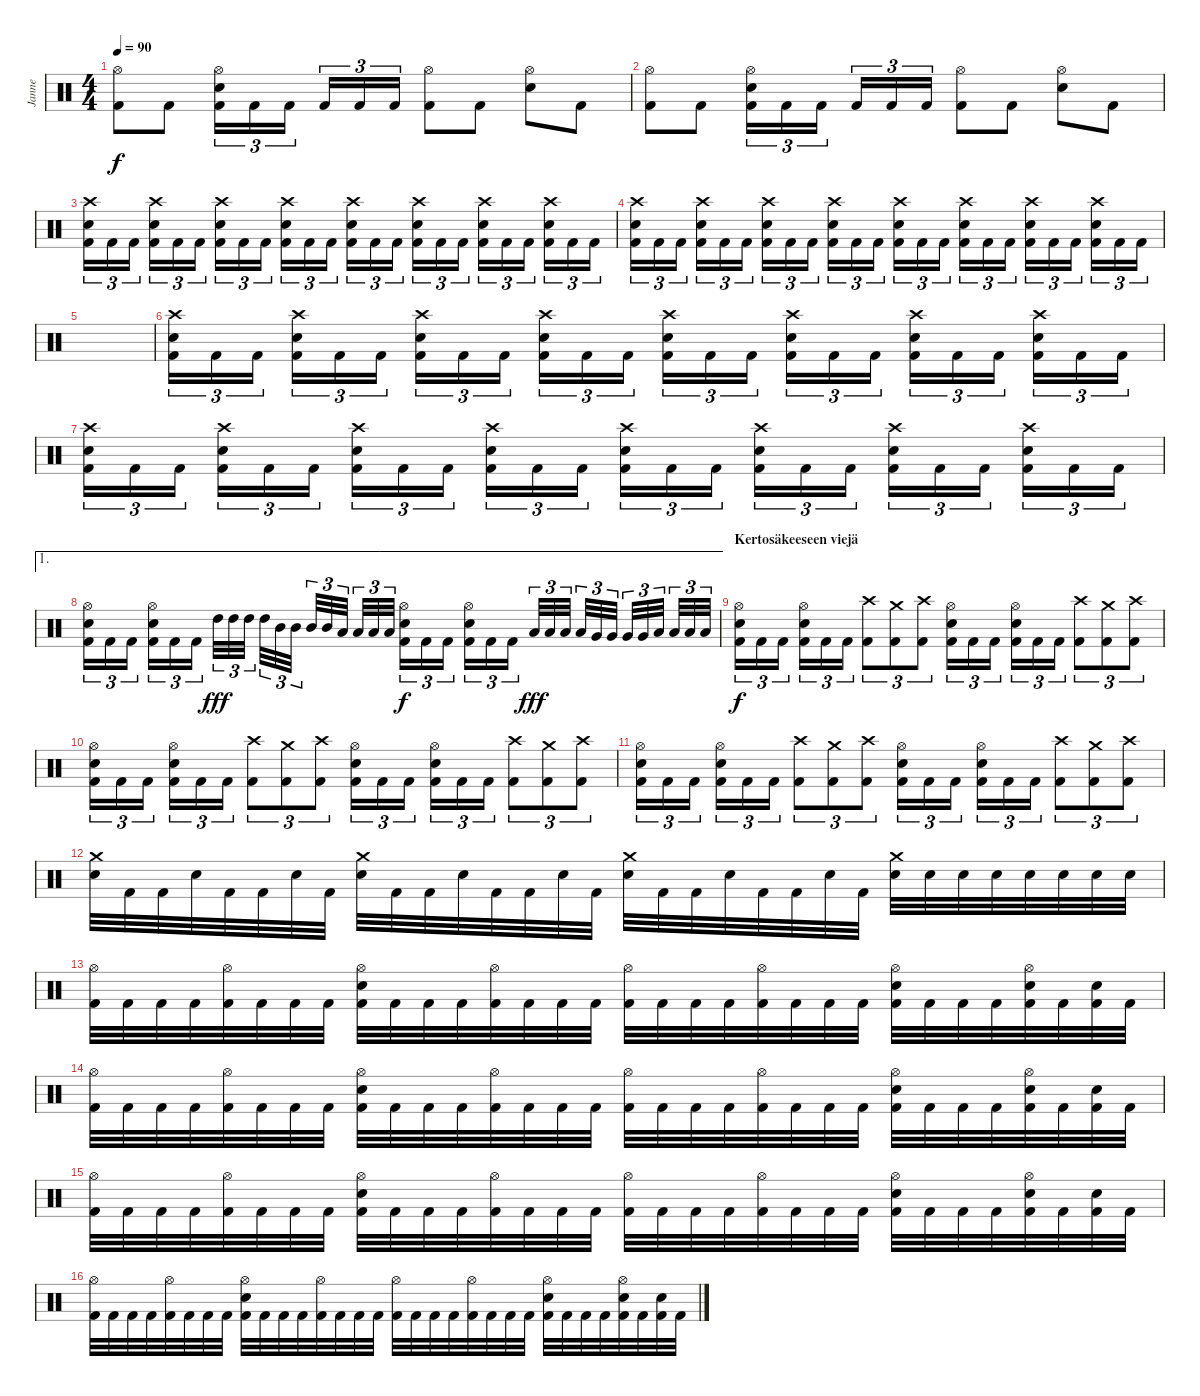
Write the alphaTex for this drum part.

\track ("Janne" "Janne") {instrument percussion}
\staff {score}
\articulation defaults
\ts (4 4)
\tempo 90
\clef neutral
\ks c
("Hi-Hat (open)" "Kick (hit) 2").8{dy f} "Kick (hit) 2".8 ("Hi-Hat (open)" "Electric Snare (hit)" "Kick (hit) 2").16{tu (3 2)} "Kick (hit) 2".16{tu (3 2)} "Kick (hit) 2".16{tu (3 2)} "Kick (hit) 2".16{tu (3 2)} "Kick (hit) 2".16{tu (3 2)} "Kick (hit) 2".16{tu (3 2)} ("Hi-Hat (open)" "Kick (hit) 2").8 "Kick (hit) 2".8 ("Hi-Hat (open)" "Electric Snare (hit)").8 "Kick (hit) 2".8 |
("Hi-Hat (open)" "Kick (hit) 2").8 "Kick (hit) 2".8 ("Hi-Hat (open)" "Electric Snare (hit)" "Kick (hit) 2").16{tu (3 2)} "Kick (hit) 2".16{tu (3 2)} "Kick (hit) 2".16{tu (3 2)} "Kick (hit) 2".16{tu (3 2)} "Kick (hit) 2".16{tu (3 2)} "Kick (hit) 2".16{tu (3 2)} ("Hi-Hat (open)" "Kick (hit) 2").8 "Kick (hit) 2".8 ("Hi-Hat (open)" "Electric Snare (hit)").8 "Kick (hit) 2".8 |
("Crash high (hit)" "Electric Snare (hit)" "Kick (hit) 2").16{tu (3 2)} "Kick (hit) 2".16{tu (3 2)} "Kick (hit) 2".16{tu (3 2)} ("Crash high (hit)" "Electric Snare (hit)" "Kick (hit) 2").16{tu (3 2)} "Kick (hit) 2".16{tu (3 2)} "Kick (hit) 2".16{tu (3 2)} ("Crash high (hit)" "Electric Snare (hit)" "Kick (hit) 2").16{tu (3 2)} "Kick (hit) 2".16{tu (3 2)} "Kick (hit) 2".16{tu (3 2)} ("Crash high (hit)" "Electric Snare (hit)" "Kick (hit) 2").16{tu (3 2)} "Kick (hit) 2".16{tu (3 2)} "Kick (hit) 2".16{tu (3 2)} ("Crash high (hit)" "Electric Snare (hit)" "Kick (hit) 2").16{tu (3 2)} "Kick (hit) 2".16{tu (3 2)} "Kick (hit) 2".16{tu (3 2)} ("Crash high (hit)" "Electric Snare (hit)" "Kick (hit) 2").16{tu (3 2)} "Kick (hit) 2".16{tu (3 2)} "Kick (hit) 2".16{tu (3 2)} ("Crash high (hit)" "Electric Snare (hit)" "Kick (hit) 2").16{tu (3 2)} "Kick (hit) 2".16{tu (3 2)} "Kick (hit) 2".16{tu (3 2)} ("Crash high (hit)" "Electric Snare (hit)" "Kick (hit) 2").16{tu (3 2)} "Kick (hit) 2".16{tu (3 2)} "Kick (hit) 2".16{tu (3 2)} |
("Crash high (hit)" "Electric Snare (hit)" "Kick (hit) 2").16{tu (3 2)} "Kick (hit) 2".16{tu (3 2)} "Kick (hit) 2".16{tu (3 2)} ("Crash high (hit)" "Electric Snare (hit)" "Kick (hit) 2").16{tu (3 2)} "Kick (hit) 2".16{tu (3 2)} "Kick (hit) 2".16{tu (3 2)} ("Crash high (hit)" "Electric Snare (hit)" "Kick (hit) 2").16{tu (3 2)} "Kick (hit) 2".16{tu (3 2)} "Kick (hit) 2".16{tu (3 2)} ("Crash high (hit)" "Electric Snare (hit)" "Kick (hit) 2").16{tu (3 2)} "Kick (hit) 2".16{tu (3 2)} "Kick (hit) 2".16{tu (3 2)} ("Crash high (hit)" "Electric Snare (hit)" "Kick (hit) 2").16{tu (3 2)} "Kick (hit) 2".16{tu (3 2)} "Kick (hit) 2".16{tu (3 2)} ("Crash high (hit)" "Electric Snare (hit)" "Kick (hit) 2").16{tu (3 2)} "Kick (hit) 2".16{tu (3 2)} "Kick (hit) 2".16{tu (3 2)} ("Crash high (hit)" "Electric Snare (hit)" "Kick (hit) 2").16{tu (3 2)} "Kick (hit) 2".16{tu (3 2)} "Kick (hit) 2".16{tu (3 2)} ("Crash high (hit)" "Electric Snare (hit)" "Kick (hit) 2").16{tu (3 2)} "Kick (hit) 2".16{tu (3 2)} "Kick (hit) 2".16{tu (3 2)} |
|
("Crash high (hit)" "Electric Snare (hit)" "Kick (hit) 2").16{tu (3 2)} "Kick (hit) 2".16{tu (3 2)} "Kick (hit) 2".16{tu (3 2)} ("Crash high (hit)" "Electric Snare (hit)" "Kick (hit) 2").16{tu (3 2)} "Kick (hit) 2".16{tu (3 2)} "Kick (hit) 2".16{tu (3 2)} ("Crash high (hit)" "Electric Snare (hit)" "Kick (hit) 2").16{tu (3 2)} "Kick (hit) 2".16{tu (3 2)} "Kick (hit) 2".16{tu (3 2)} ("Crash high (hit)" "Electric Snare (hit)" "Kick (hit) 2").16{tu (3 2)} "Kick (hit) 2".16{tu (3 2)} "Kick (hit) 2".16{tu (3 2)} ("Crash high (hit)" "Electric Snare (hit)" "Kick (hit) 2").16{tu (3 2)} "Kick (hit) 2".16{tu (3 2)} "Kick (hit) 2".16{tu (3 2)} ("Crash high (hit)" "Electric Snare (hit)" "Kick (hit) 2").16{tu (3 2)} "Kick (hit) 2".16{tu (3 2)} "Kick (hit) 2".16{tu (3 2)} ("Crash high (hit)" "Electric Snare (hit)" "Kick (hit) 2").16{tu (3 2)} "Kick (hit) 2".16{tu (3 2)} "Kick (hit) 2".16{tu (3 2)} ("Crash high (hit)" "Electric Snare (hit)" "Kick (hit) 2").16{tu (3 2)} "Kick (hit) 2".16{tu (3 2)} "Kick (hit) 2".16{tu (3 2)} |
("Crash high (hit)" "Electric Snare (hit)" "Kick (hit) 2").16{tu (3 2)} "Kick (hit) 2".16{tu (3 2)} "Kick (hit) 2".16{tu (3 2)} ("Crash high (hit)" "Electric Snare (hit)" "Kick (hit) 2").16{tu (3 2)} "Kick (hit) 2".16{tu (3 2)} "Kick (hit) 2".16{tu (3 2)} ("Crash high (hit)" "Electric Snare (hit)" "Kick (hit) 2").16{tu (3 2)} "Kick (hit) 2".16{tu (3 2)} "Kick (hit) 2".16{tu (3 2)} ("Crash high (hit)" "Electric Snare (hit)" "Kick (hit) 2").16{tu (3 2)} "Kick (hit) 2".16{tu (3 2)} "Kick (hit) 2".16{tu (3 2)} ("Crash high (hit)" "Electric Snare (hit)" "Kick (hit) 2").16{tu (3 2)} "Kick (hit) 2".16{tu (3 2)} "Kick (hit) 2".16{tu (3 2)} ("Crash high (hit)" "Electric Snare (hit)" "Kick (hit) 2").16{tu (3 2)} "Kick (hit) 2".16{tu (3 2)} "Kick (hit) 2".16{tu (3 2)} ("Crash high (hit)" "Electric Snare (hit)" "Kick (hit) 2").16{tu (3 2)} "Kick (hit) 2".16{tu (3 2)} "Kick (hit) 2".16{tu (3 2)} ("Crash high (hit)" "Electric Snare (hit)" "Kick (hit) 2").16{tu (3 2)} "Kick (hit) 2".16{tu (3 2)} "Kick (hit) 2".16{tu (3 2)} |
\ae 1
("Hi-Hat (open)" "Electric Snare (hit)" "Kick (hit) 2").16{tu (3 2)} "Kick (hit) 2".16{tu (3 2)} "Kick (hit) 2".16{tu (3 2)} ("Hi-Hat (open)" "Electric Snare (hit)" "Kick (hit) 2").16{tu (3 2)} "Kick (hit) 2".16{tu (3 2)} "Kick (hit) 2".16{tu (3 2)} "High Tom (hit)".32{tu (3 2) dy fff} "High Tom (hit)".32{tu (3 2)} "High Tom (hit)".32{tu (3 2)} "High Tom (hit)".32{tu (3 2)} "Mid Tom (hit)".32{tu (3 2)} "Mid Tom (hit)".32{tu (3 2)} "Mid Tom (hit)".32{tu (3 2)} "Mid Tom (hit)".32{tu (3 2)} "Low Tom (hit)".32{tu (3 2)} "Low Tom (hit)".32{tu (3 2)} "Low Tom (hit)".32{tu (3 2)} "Low Tom (hit)".32{tu (3 2)} ("Hi-Hat (open)" "Electric Snare (hit)" "Kick (hit) 2").16{tu (3 2) dy f} "Kick (hit) 2".16{tu (3 2)} "Kick (hit) 2".16{tu (3 2)} ("Hi-Hat (open)" "Electric Snare (hit)" "Kick (hit) 2").16{tu (3 2)} "Kick (hit) 2".16{tu (3 2)} "Kick (hit) 2".16{tu (3 2)} "Low Tom (hit)".32{tu (3 2) dy fff} "Low Tom (hit)".32{tu (3 2)} "Low Tom (hit)".32{tu (3 2)} "Low Tom (hit)".32{tu (3 2)} "Very Low Tom (hit)".32{tu (3 2)} "Very Low Tom (hit)".32{tu (3 2)} "Very Low Tom (hit)".32{tu (3 2)} "Very Low Tom (hit)".32{tu (3 2)} "Low Floor Tom (hit)".32{tu (3 2)} "Low Floor Tom (hit)".32{tu (3 2)} "Low Floor Tom (hit)".32{tu (3 2)} "Low Floor Tom (hit)".32{tu (3 2)} |
\section ("" "Kertosäkeeseen viejä")
("Hi-Hat (open)" "Electric Snare (hit)" "Kick (hit) 2").16{tu (3 2) dy f} "Kick (hit) 2".16{tu (3 2)} "Kick (hit) 2".16{tu (3 2)} ("Hi-Hat (open)" "Electric Snare (hit)" "Kick (hit) 2").16{tu (3 2)} "Kick (hit) 2".16{tu (3 2)} "Kick (hit) 2".16{tu (3 2)} ("Crash high (hit)" "Kick (hit) 2").8{tu (3 2)} ("Crash medium (hit)" "Kick (hit) 2").8{tu (3 2)} ("Crash high (hit)" "Kick (hit) 2").8{tu (3 2)} ("Hi-Hat (open)" "Electric Snare (hit)" "Kick (hit) 2").16{tu (3 2)} "Kick (hit) 2".16{tu (3 2)} "Kick (hit) 2".16{tu (3 2)} ("Hi-Hat (open)" "Electric Snare (hit)" "Kick (hit) 2").16{tu (3 2)} "Kick (hit) 2".16{tu (3 2)} "Kick (hit) 2".16{tu (3 2)} ("Crash high (hit)" "Kick (hit) 2").8{tu (3 2)} ("Crash medium (hit)" "Kick (hit) 2").8{tu (3 2)} ("Crash high (hit)" "Kick (hit) 2").8{tu (3 2)} |
("Hi-Hat (open)" "Electric Snare (hit)" "Kick (hit) 2").16{tu (3 2)} "Kick (hit) 2".16{tu (3 2)} "Kick (hit) 2".16{tu (3 2)} ("Hi-Hat (open)" "Electric Snare (hit)" "Kick (hit) 2").16{tu (3 2)} "Kick (hit) 2".16{tu (3 2)} "Kick (hit) 2".16{tu (3 2)} ("Crash high (hit)" "Kick (hit) 2").8{tu (3 2)} ("Crash medium (hit)" "Kick (hit) 2").8{tu (3 2)} ("Crash high (hit)" "Kick (hit) 2").8{tu (3 2)} ("Hi-Hat (open)" "Electric Snare (hit)" "Kick (hit) 2").16{tu (3 2)} "Kick (hit) 2".16{tu (3 2)} "Kick (hit) 2".16{tu (3 2)} ("Hi-Hat (open)" "Electric Snare (hit)" "Kick (hit) 2").16{tu (3 2)} "Kick (hit) 2".16{tu (3 2)} "Kick (hit) 2".16{tu (3 2)} ("Crash high (hit)" "Kick (hit) 2").8{tu (3 2)} ("Crash medium (hit)" "Kick (hit) 2").8{tu (3 2)} ("Crash high (hit)" "Kick (hit) 2").8{tu (3 2)} |
("Hi-Hat (open)" "Electric Snare (hit)" "Kick (hit) 2").16{tu (3 2)} "Kick (hit) 2".16{tu (3 2)} "Kick (hit) 2".16{tu (3 2)} ("Hi-Hat (open)" "Electric Snare (hit)" "Kick (hit) 2").16{tu (3 2)} "Kick (hit) 2".16{tu (3 2)} "Kick (hit) 2".16{tu (3 2)} ("Crash high (hit)" "Kick (hit) 2").8{tu (3 2)} ("Crash medium (hit)" "Kick (hit) 2").8{tu (3 2)} ("Crash high (hit)" "Kick (hit) 2").8{tu (3 2)} ("Hi-Hat (open)" "Electric Snare (hit)" "Kick (hit) 2").16{tu (3 2)} "Kick (hit) 2".16{tu (3 2)} "Kick (hit) 2".16{tu (3 2)} ("Hi-Hat (open)" "Electric Snare (hit)" "Kick (hit) 2").16{tu (3 2)} "Kick (hit) 2".16{tu (3 2)} "Kick (hit) 2".16{tu (3 2)} ("Crash high (hit)" "Kick (hit) 2").8{tu (3 2)} ("Crash medium (hit)" "Kick (hit) 2").8{tu (3 2)} ("Crash high (hit)" "Kick (hit) 2").8{tu (3 2)} |
("Crash medium (hit)" "Electric Snare (hit)").32 "Kick (hit) 2".32 "Kick (hit) 2".32 "Electric Snare (hit)".32 "Kick (hit) 2".32 "Kick (hit) 2".32 "Electric Snare (hit)".32 "Kick (hit) 2".32 ("Crash medium (hit)" "Electric Snare (hit)").32 "Kick (hit) 2".32 "Kick (hit) 2".32 "Electric Snare (hit)".32 "Kick (hit) 2".32 "Kick (hit) 2".32 "Electric Snare (hit)".32 "Kick (hit) 2".32 ("Crash medium (hit)" "Electric Snare (hit)").32 "Kick (hit) 2".32 "Kick (hit) 2".32 "Electric Snare (hit)".32 "Kick (hit) 2".32 "Kick (hit) 2".32 "Electric Snare (hit)".32 "Kick (hit) 2".32 ("Crash medium (hit)" "Electric Snare (hit)").32 "Electric Snare (hit)".32 "Electric Snare (hit)".32 "Electric Snare (hit)".32 "Electric Snare (hit)".32 "Electric Snare (hit)".32 "Electric Snare (hit)".32 "Electric Snare (hit)".32 |
("Hi-Hat (open)" "Kick (hit) 2").32 "Kick (hit) 2".32 "Kick (hit) 2".32 "Kick (hit) 2".32 ("Hi-Hat (open)" "Kick (hit) 2").32 "Kick (hit) 2".32 "Kick (hit) 2".32 "Kick (hit) 2".32 ("Hi-Hat (open)" "Electric Snare (hit)" "Kick (hit) 2").32 "Kick (hit) 2".32 "Kick (hit) 2".32 "Kick (hit) 2".32 ("Hi-Hat (open)" "Kick (hit) 2").32 "Kick (hit) 2".32 "Kick (hit) 2".32 "Kick (hit) 2".32 ("Hi-Hat (open)" "Kick (hit) 2").32 "Kick (hit) 2".32 "Kick (hit) 2".32 "Kick (hit) 2".32 ("Hi-Hat (open)" "Kick (hit) 2").32 "Kick (hit) 2".32 "Kick (hit) 2".32 "Kick (hit) 2".32 ("Hi-Hat (open)" "Electric Snare (hit)" "Kick (hit) 2").32 "Kick (hit) 2".32 "Kick (hit) 2".32 "Kick (hit) 2".32 ("Hi-Hat (open)" "Electric Snare (hit)" "Kick (hit) 2").32 "Kick (hit) 2".32 ("Electric Snare (hit)" "Kick (hit) 2").32 "Kick (hit) 2".32 |
("Hi-Hat (open)" "Kick (hit) 2").32 "Kick (hit) 2".32 "Kick (hit) 2".32 "Kick (hit) 2".32 ("Hi-Hat (open)" "Kick (hit) 2").32 "Kick (hit) 2".32 "Kick (hit) 2".32 "Kick (hit) 2".32 ("Hi-Hat (open)" "Electric Snare (hit)" "Kick (hit) 2").32 "Kick (hit) 2".32 "Kick (hit) 2".32 "Kick (hit) 2".32 ("Hi-Hat (open)" "Kick (hit) 2").32 "Kick (hit) 2".32 "Kick (hit) 2".32 "Kick (hit) 2".32 ("Hi-Hat (open)" "Kick (hit) 2").32 "Kick (hit) 2".32 "Kick (hit) 2".32 "Kick (hit) 2".32 ("Hi-Hat (open)" "Kick (hit) 2").32 "Kick (hit) 2".32 "Kick (hit) 2".32 "Kick (hit) 2".32 ("Hi-Hat (open)" "Electric Snare (hit)" "Kick (hit) 2").32 "Kick (hit) 2".32 "Kick (hit) 2".32 "Kick (hit) 2".32 ("Hi-Hat (open)" "Electric Snare (hit)" "Kick (hit) 2").32 "Kick (hit) 2".32 ("Electric Snare (hit)" "Kick (hit) 2").32 "Kick (hit) 2".32 |
("Hi-Hat (open)" "Kick (hit) 2").32 "Kick (hit) 2".32 "Kick (hit) 2".32 "Kick (hit) 2".32 ("Hi-Hat (open)" "Kick (hit) 2").32 "Kick (hit) 2".32 "Kick (hit) 2".32 "Kick (hit) 2".32 ("Hi-Hat (open)" "Electric Snare (hit)" "Kick (hit) 2").32 "Kick (hit) 2".32 "Kick (hit) 2".32 "Kick (hit) 2".32 ("Hi-Hat (open)" "Kick (hit) 2").32 "Kick (hit) 2".32 "Kick (hit) 2".32 "Kick (hit) 2".32 ("Hi-Hat (open)" "Kick (hit) 2").32 "Kick (hit) 2".32 "Kick (hit) 2".32 "Kick (hit) 2".32 ("Hi-Hat (open)" "Kick (hit) 2").32 "Kick (hit) 2".32 "Kick (hit) 2".32 "Kick (hit) 2".32 ("Hi-Hat (open)" "Electric Snare (hit)" "Kick (hit) 2").32 "Kick (hit) 2".32 "Kick (hit) 2".32 "Kick (hit) 2".32 ("Hi-Hat (open)" "Electric Snare (hit)" "Kick (hit) 2").32 "Kick (hit) 2".32 ("Electric Snare (hit)" "Kick (hit) 2").32 "Kick (hit) 2".32 |
("Hi-Hat (open)" "Kick (hit) 2").32 "Kick (hit) 2".32 "Kick (hit) 2".32 "Kick (hit) 2".32 ("Hi-Hat (open)" "Kick (hit) 2").32 "Kick (hit) 2".32 "Kick (hit) 2".32 "Kick (hit) 2".32 ("Hi-Hat (open)" "Electric Snare (hit)" "Kick (hit) 2").32 "Kick (hit) 2".32 "Kick (hit) 2".32 "Kick (hit) 2".32 ("Hi-Hat (open)" "Kick (hit) 2").32 "Kick (hit) 2".32 "Kick (hit) 2".32 "Kick (hit) 2".32 ("Hi-Hat (open)" "Kick (hit) 2").32 "Kick (hit) 2".32 "Kick (hit) 2".32 "Kick (hit) 2".32 ("Hi-Hat (open)" "Kick (hit) 2").32 "Kick (hit) 2".32 "Kick (hit) 2".32 "Kick (hit) 2".32 ("Hi-Hat (open)" "Electric Snare (hit)" "Kick (hit) 2").32 "Kick (hit) 2".32 "Kick (hit) 2".32 "Kick (hit) 2".32 ("Hi-Hat (open)" "Electric Snare (hit)" "Kick (hit) 2").32 "Kick (hit) 2".32 ("Electric Snare (hit)" "Kick (hit) 2").32 "Kick (hit) 2".32
